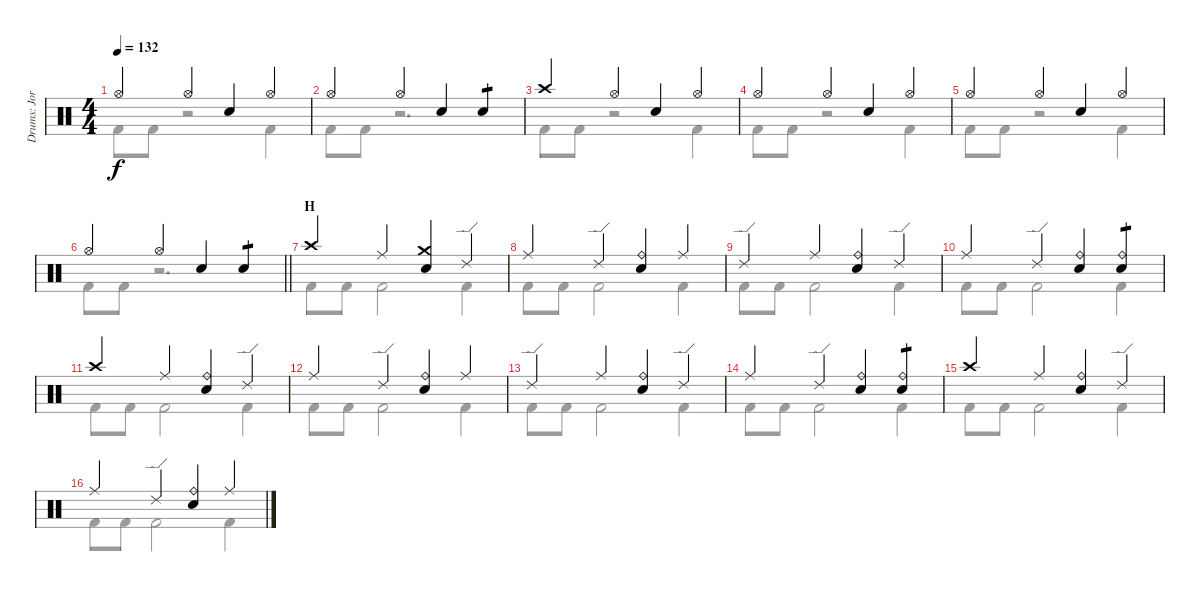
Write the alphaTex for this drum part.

\track ("Drums: Jorg" "Drums: Jor") {instrument percussion}
\staff {score}
\articulation defaults
\voice
\ts (4 4)
\tempo 132
\clef neutral
\ks c "Hi-Hat (open)".4{dy f} "Hi-Hat (open)".4 "Snare (hit) 2".4 "Hi-Hat (open)".4
|
"Hi-Hat (open)".4 "Hi-Hat (open)".4 "Snare (hit) 2".4 "Snare (hit) 2".4{tp 1} |
"Crash high (hit)".4 "Hi-Hat (open)".4 "Snare (hit) 2".4 "Hi-Hat (open)".4 |
"Hi-Hat (open)".4 "Hi-Hat (open)".4 "Snare (hit) 2".4 "Hi-Hat (open)".4 |
"Hi-Hat (open)".4 "Hi-Hat (open)".4 "Snare (hit) 2".4 "Hi-Hat (open)".4 |
\barLineRight lightlight "Hi-Hat (open)".4 "Hi-Hat (open)".4 "Snare (hit) 2".4 "Snare (hit) 2".4{tp 1}
|
\section ("" "H")
"Crash high (hit)".4 "Ride (middle)".4 ("Crash medium (hit)" "Snare (hit) 2").4 "Ride (edge) 2".4 |
"Ride (middle)".4 "Ride (edge) 2".4 ("Ride (bell)" "Snare (hit) 2").4 "Ride (middle)".4 |
"Ride (edge) 2".4 "Ride (middle)".4 ("Ride (bell)" "Snare (hit) 2").4 "Ride (edge) 2".4 |
"Ride (middle)".4 "Ride (edge) 2".4 ("Ride (bell)" "Snare (hit) 2").4 ("Ride (bell)" "Snare (hit) 2").4{tp 1} |
"Crash high (hit)".4 "Ride (middle)".4 ("Ride (bell)" "Snare (hit) 2").4 "Ride (edge) 2".4 |
"Ride (middle)".4 "Ride (edge) 2".4 ("Ride (bell)" "Snare (hit) 2").4 "Ride (middle)".4 |
"Ride (edge) 2".4 "Ride (middle)".4 ("Ride (bell)" "Snare (hit) 2").4 "Ride (edge) 2".4 |
"Ride (middle)".4 "Ride (edge) 2".4 ("Ride (bell)" "Snare (hit) 2").4 ("Ride (bell)" "Snare (hit) 2").4{tp 1} |
"Crash high (hit)".4 "Ride (middle)".4 ("Ride (bell)" "Snare (hit) 2").4 "Ride (edge) 2".4 |
"Ride (middle)".4 "Ride (edge) 2".4 ("Ride (bell)" "Snare (hit) 2").4 "Ride (middle)".4
\voice
\clef neutral
\ottava regular
\simile none
\ks c "Kick (hit) 2".8{dy f} "Kick (hit) 2".8
r.2 "Kick (hit) 2".4 |
"Kick (hit) 2".8 "Kick (hit) 2".8 r.2{d} |
"Kick (hit) 2".8 "Kick (hit) 2".8 r.2 "Kick (hit) 2".4 |
"Kick (hit) 2".8 "Kick (hit) 2".8 r.2 "Kick (hit) 2".4 |
"Kick (hit) 2".8 "Kick (hit) 2".8 r.2 "Kick (hit) 2".4 |
\barLineRight lightlight "Kick (hit) 2".8 "Kick (hit) 2".8
r.2{d} |
"Kick (hit) 2".8 "Kick (hit) 2".8 "Kick (hit) 2".2 "Kick (hit) 2".4 |
"Kick (hit) 2".8 "Kick (hit) 2".8 "Kick (hit) 2".2 "Kick (hit) 2".4 |
"Kick (hit) 2".8 "Kick (hit) 2".8 "Kick (hit) 2".2 "Kick (hit) 2".4 |
"Kick (hit) 2".8 "Kick (hit) 2".8 "Kick (hit) 2".2 "Kick (hit) 2".4 |
"Kick (hit) 2".8 "Kick (hit) 2".8 "Kick (hit) 2".2 "Kick (hit) 2".4 |
"Kick (hit) 2".8 "Kick (hit) 2".8 "Kick (hit) 2".2 "Kick (hit) 2".4 |
"Kick (hit) 2".8 "Kick (hit) 2".8 "Kick (hit) 2".2 "Kick (hit) 2".4 |
"Kick (hit) 2".8 "Kick (hit) 2".8 "Kick (hit) 2".2 "Kick (hit) 2".4 |
"Kick (hit) 2".8 "Kick (hit) 2".8 "Kick (hit) 2".2 "Kick (hit) 2".4 |
"Kick (hit) 2".8 "Kick (hit) 2".8 "Kick (hit) 2".2 "Kick (hit) 2".4
